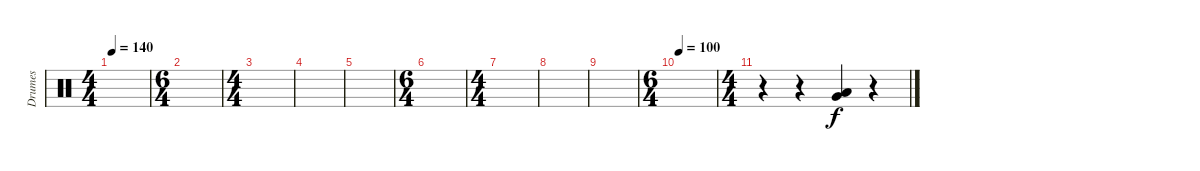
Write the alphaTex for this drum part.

\track ("Drumes" "Drumes") {instrument percussion}
\staff {score}
\articulation defaults
\ts (4 4)
\tempo 140
\clef neutral
\ks c
|
\ts (6 4)
|
\ts (4 4)
|
|
|
\ts (6 4)
|
\ts (4 4)
|
|
|
\ts (6 4)
\tempo 100
|
\ts (4 4)
r.4 r.4 ("Very Low Tom (hit)" "Low Floor Tom (hit)").4 r.4
